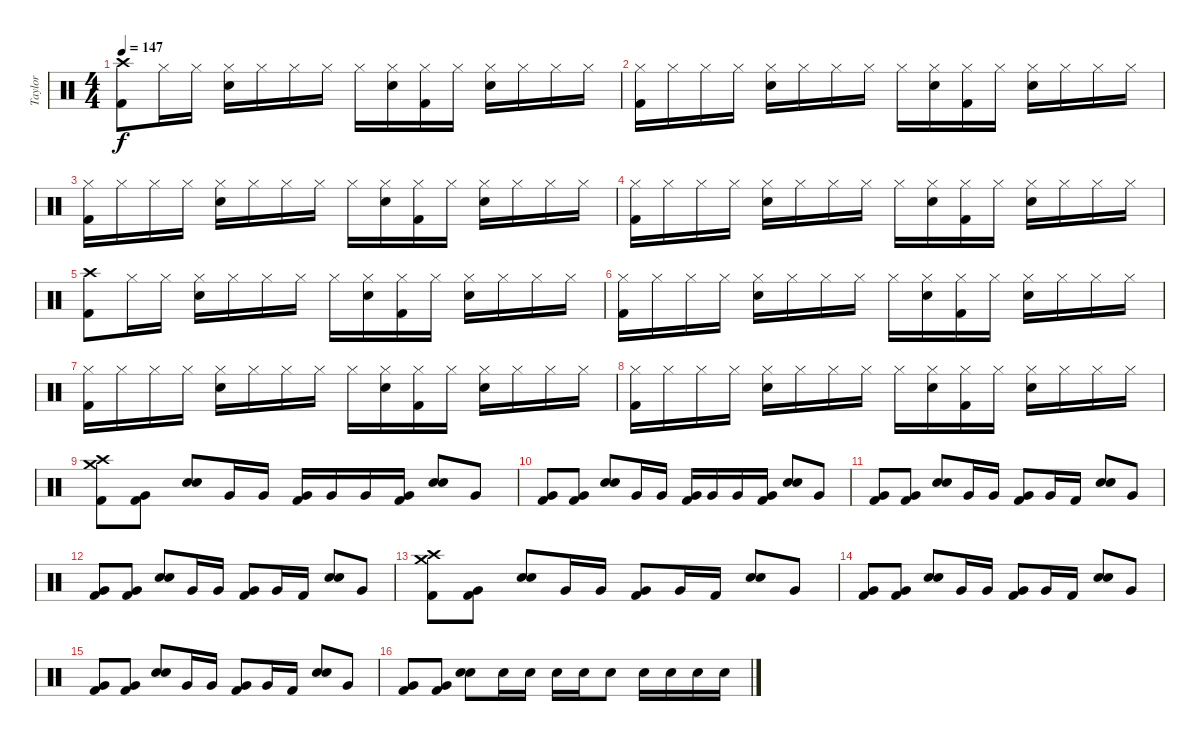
\track ("Taylor" "Taylor") {instrument percussion}
\staff {score}
\articulation defaults
\ts (4 4)
\tempo 147
\clef neutral
\ks c
("Crash high (hit)" "Kick (hit) 2").8{dy f} "Hi-Hat (closed)".16 "Hi-Hat (closed)".16 ("Hi-Hat (closed)" "Electric Snare (hit)").16 "Hi-Hat (closed)".16 "Hi-Hat (closed)".16 "Hi-Hat (closed)".16 "Hi-Hat (closed)".16 ("Hi-Hat (closed)" "Electric Snare (hit)").16 ("Hi-Hat (closed)" "Kick (hit) 2").16 "Hi-Hat (closed)".16 ("Hi-Hat (closed)" "Electric Snare (hit)").16 "Hi-Hat (closed)".16 "Hi-Hat (closed)".16 "Hi-Hat (closed)".16 |
("Hi-Hat (closed)" "Kick (hit) 2").16 "Hi-Hat (closed)".16 "Hi-Hat (closed)".16 "Hi-Hat (closed)".16 ("Hi-Hat (closed)" "Electric Snare (hit)").16 "Hi-Hat (closed)".16 "Hi-Hat (closed)".16 "Hi-Hat (closed)".16 "Hi-Hat (closed)".16 ("Hi-Hat (closed)" "Electric Snare (hit)").16 ("Hi-Hat (closed)" "Kick (hit) 2").16 "Hi-Hat (closed)".16 ("Hi-Hat (closed)" "Electric Snare (hit)").16 "Hi-Hat (closed)".16 "Hi-Hat (closed)".16 "Hi-Hat (closed)".16 |
("Hi-Hat (closed)" "Kick (hit) 2").16 "Hi-Hat (closed)".16 "Hi-Hat (closed)".16 "Hi-Hat (closed)".16 ("Hi-Hat (closed)" "Electric Snare (hit)").16 "Hi-Hat (closed)".16 "Hi-Hat (closed)".16 "Hi-Hat (closed)".16 "Hi-Hat (closed)".16 ("Hi-Hat (closed)" "Electric Snare (hit)").16 ("Hi-Hat (closed)" "Kick (hit) 2").16 "Hi-Hat (closed)".16 ("Hi-Hat (closed)" "Electric Snare (hit)").16 "Hi-Hat (closed)".16 "Hi-Hat (closed)".16 "Hi-Hat (closed)".16 |
("Hi-Hat (closed)" "Kick (hit) 2").16 "Hi-Hat (closed)".16 "Hi-Hat (closed)".16 "Hi-Hat (closed)".16 ("Hi-Hat (closed)" "Electric Snare (hit)").16 "Hi-Hat (closed)".16 "Hi-Hat (closed)".16 "Hi-Hat (closed)".16 "Hi-Hat (closed)".16 ("Hi-Hat (closed)" "Electric Snare (hit)").16 ("Hi-Hat (closed)" "Kick (hit) 2").16 "Hi-Hat (closed)".16 ("Hi-Hat (closed)" "Electric Snare (hit)").16 "Hi-Hat (closed)".16 "Hi-Hat (closed)".16 "Hi-Hat (closed)".16 |
("Crash high (hit)" "Kick (hit) 2").8 "Hi-Hat (closed)".16 "Hi-Hat (closed)".16 ("Hi-Hat (closed)" "Electric Snare (hit)").16 "Hi-Hat (closed)".16 "Hi-Hat (closed)".16 "Hi-Hat (closed)".16 "Hi-Hat (closed)".16 ("Hi-Hat (closed)" "Electric Snare (hit)").16 ("Hi-Hat (closed)" "Kick (hit) 2").16 "Hi-Hat (closed)".16 ("Hi-Hat (closed)" "Electric Snare (hit)").16 "Hi-Hat (closed)".16 "Hi-Hat (closed)".16 "Hi-Hat (closed)".16 |
("Hi-Hat (closed)" "Kick (hit) 2").16 "Hi-Hat (closed)".16 "Hi-Hat (closed)".16 "Hi-Hat (closed)".16 ("Hi-Hat (closed)" "Electric Snare (hit)").16 "Hi-Hat (closed)".16 "Hi-Hat (closed)".16 "Hi-Hat (closed)".16 "Hi-Hat (closed)".16 ("Hi-Hat (closed)" "Electric Snare (hit)").16 ("Hi-Hat (closed)" "Kick (hit) 2").16 "Hi-Hat (closed)".16 ("Hi-Hat (closed)" "Electric Snare (hit)").16 "Hi-Hat (closed)".16 "Hi-Hat (closed)".16 "Hi-Hat (closed)".16 |
("Hi-Hat (closed)" "Kick (hit) 2").16 "Hi-Hat (closed)".16 "Hi-Hat (closed)".16 "Hi-Hat (closed)".16 ("Hi-Hat (closed)" "Electric Snare (hit)").16 "Hi-Hat (closed)".16 "Hi-Hat (closed)".16 "Hi-Hat (closed)".16 "Hi-Hat (closed)".16 ("Hi-Hat (closed)" "Electric Snare (hit)").16 ("Hi-Hat (closed)" "Kick (hit) 2").16 "Hi-Hat (closed)".16 ("Hi-Hat (closed)" "Electric Snare (hit)").16 "Hi-Hat (closed)".16 "Hi-Hat (closed)".16 "Hi-Hat (closed)".16 |
("Hi-Hat (closed)" "Kick (hit) 2").16 "Hi-Hat (closed)".16 "Hi-Hat (closed)".16 "Hi-Hat (closed)".16 ("Hi-Hat (closed)" "Electric Snare (hit)").16 "Hi-Hat (closed)".16 "Hi-Hat (closed)".16 "Hi-Hat (closed)".16 "Hi-Hat (closed)".16 ("Hi-Hat (closed)" "Electric Snare (hit)").16 ("Hi-Hat (closed)" "Kick (hit) 2").16 "Hi-Hat (closed)".16 ("Hi-Hat (closed)" "Electric Snare (hit)").16 "Hi-Hat (closed)".16 "Hi-Hat (closed)".16 "Hi-Hat (closed)".16 |
("Crash high (hit)" "Crash medium (hit)" "Kick (hit) 2").8 ("Very Low Tom (hit)" "Kick (hit) 2").8 ("Electric Snare (hit)" "Electric Snare (hit)").8{bu 240} "Very Low Tom (hit)".16 "Very Low Tom (hit)".16 ("Very Low Tom (hit)" "Kick (hit) 2").16 "Very Low Tom (hit)".16 "Very Low Tom (hit)".16 ("Very Low Tom (hit)" "Kick (hit) 2").16 ("Electric Snare (hit)" "Electric Snare (hit)").8{bu 240} "Very Low Tom (hit)".8 |
("Very Low Tom (hit)" "Kick (hit) 2").8 ("Very Low Tom (hit)" "Kick (hit) 2").8 ("Electric Snare (hit)" "Electric Snare (hit)").8{bu 240} "Very Low Tom (hit)".16 "Very Low Tom (hit)".16 ("Very Low Tom (hit)" "Kick (hit) 2").16 "Very Low Tom (hit)".16 "Very Low Tom (hit)".16 ("Very Low Tom (hit)" "Kick (hit) 2").16 ("Electric Snare (hit)" "Electric Snare (hit)").8{bu 240} "Very Low Tom (hit)".8 |
("Very Low Tom (hit)" "Kick (hit) 2").8 ("Very Low Tom (hit)" "Kick (hit) 2").8 ("Electric Snare (hit)" "Electric Snare (hit)").8{bu 240} "Very Low Tom (hit)".16 "Very Low Tom (hit)".16 ("Very Low Tom (hit)" "Kick (hit) 2").8 "Very Low Tom (hit)".16 "Kick (hit) 2".16 ("Electric Snare (hit)" "Electric Snare (hit)").8{bu 240} "Very Low Tom (hit)".8 |
("Very Low Tom (hit)" "Kick (hit) 2").8 ("Very Low Tom (hit)" "Kick (hit) 2").8 ("Electric Snare (hit)" "Electric Snare (hit)").8{bu 240} "Very Low Tom (hit)".16 "Very Low Tom (hit)".16 ("Very Low Tom (hit)" "Kick (hit) 2").8 "Very Low Tom (hit)".16 "Kick (hit) 2".16 ("Electric Snare (hit)" "Electric Snare (hit)").8{bu 240} "Very Low Tom (hit)".8 |
("Crash high (hit)" "Crash medium (hit)" "Kick (hit) 2").8 ("Very Low Tom (hit)" "Kick (hit) 2").8 ("Electric Snare (hit)" "Electric Snare (hit)").8{bu 240} "Very Low Tom (hit)".16 "Very Low Tom (hit)".16 ("Very Low Tom (hit)" "Kick (hit) 2").8 "Very Low Tom (hit)".16 "Kick (hit) 2".16 ("Electric Snare (hit)" "Electric Snare (hit)").8{bu 240} "Very Low Tom (hit)".8 |
("Very Low Tom (hit)" "Kick (hit) 2").8 ("Very Low Tom (hit)" "Kick (hit) 2").8 ("Electric Snare (hit)" "Electric Snare (hit)").8{bu 240} "Very Low Tom (hit)".16 "Very Low Tom (hit)".16 ("Very Low Tom (hit)" "Kick (hit) 2").8 "Very Low Tom (hit)".16 "Kick (hit) 2".16 ("Electric Snare (hit)" "Electric Snare (hit)").8{bu 240} "Very Low Tom (hit)".8 |
("Very Low Tom (hit)" "Kick (hit) 2").8 ("Very Low Tom (hit)" "Kick (hit) 2").8 ("Electric Snare (hit)" "Electric Snare (hit)").8{bu 240} "Very Low Tom (hit)".16 "Very Low Tom (hit)".16 ("Very Low Tom (hit)" "Kick (hit) 2").8 "Very Low Tom (hit)".16 "Kick (hit) 2".16 ("Electric Snare (hit)" "Electric Snare (hit)").8{bu 240} "Very Low Tom (hit)".8 |
("Very Low Tom (hit)" "Kick (hit) 2").8 ("Very Low Tom (hit)" "Kick (hit) 2").8 ("Electric Snare (hit)" "Electric Snare (hit)").8{bu 240} "Electric Snare (hit)".16 "Electric Snare (hit)".16 "Electric Snare (hit)".16 "Electric Snare (hit)".16 "Electric Snare (hit)".8 "Electric Snare (hit)".16 "Electric Snare (hit)".16 "Electric Snare (hit)".16 "Electric Snare (hit)".16
